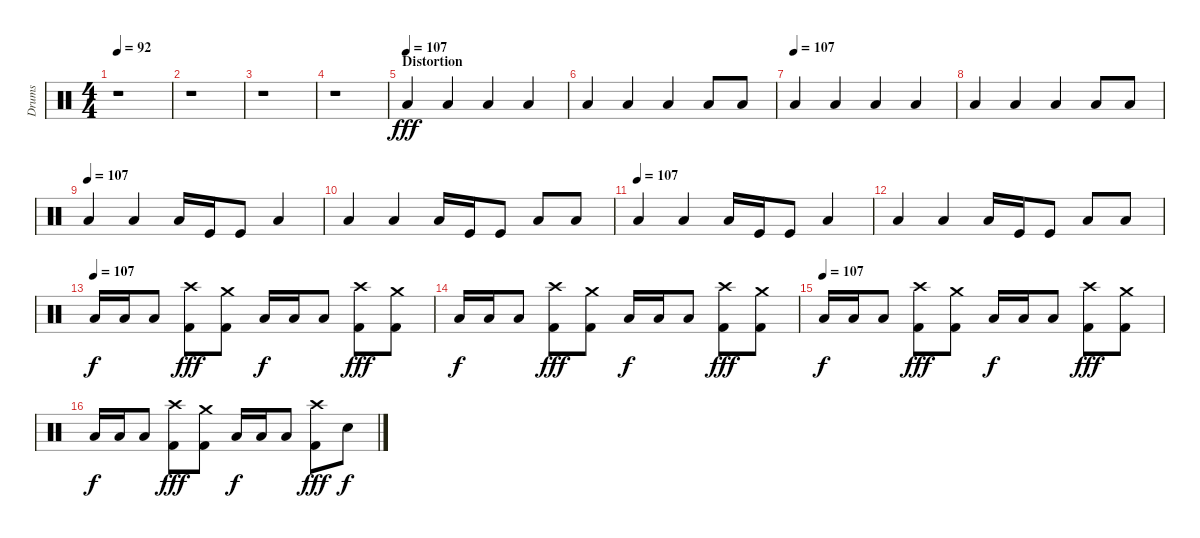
\track ("Drums" "Drums") {instrument percussion}
\staff {score}
\articulation defaults
\ts (4 4)
\tempo 92
\clef neutral
\ks c
r.1{dy fff} |
r.1 |
r.1 |
r.1 |
\section ("" "Distortion")
\tempo (107)
"Low Floor Tom (hit)".4 "Low Floor Tom (hit)".4 "Low Floor Tom (hit)".4 "Low Floor Tom (hit)".4 |
"Low Floor Tom (hit)".4 "Low Floor Tom (hit)".4 "Low Floor Tom (hit)".4 "Low Floor Tom (hit)".8 "Low Floor Tom (hit)".8 |
\tempo (107)
"Low Floor Tom (hit)".4 "Low Floor Tom (hit)".4 "Low Floor Tom (hit)".4 "Low Floor Tom (hit)".4 |
"Low Floor Tom (hit)".4 "Low Floor Tom (hit)".4 "Low Floor Tom (hit)".4 "Low Floor Tom (hit)".8 "Low Floor Tom (hit)".8 |
\tempo (107)
"Low Floor Tom (hit)".4 "Low Floor Tom (hit)".4 "Low Floor Tom (hit)".16 "Kick (hit)".16 "Kick (hit)".8 "Low Floor Tom (hit)".4 |
"Low Floor Tom (hit)".4 "Low Floor Tom (hit)".4 "Low Floor Tom (hit)".16 "Kick (hit)".16 "Kick (hit)".8 "Low Floor Tom (hit)".8 "Low Floor Tom (hit)".8 |
\tempo (107)
"Low Floor Tom (hit)".4 "Low Floor Tom (hit)".4 "Low Floor Tom (hit)".16 "Kick (hit)".16 "Kick (hit)".8 "Low Floor Tom (hit)".4 |
"Low Floor Tom (hit)".4 "Low Floor Tom (hit)".4 "Low Floor Tom (hit)".16 "Kick (hit)".16 "Kick (hit)".8 "Low Floor Tom (hit)".8 "Low Floor Tom (hit)".8 |
\tempo (107)
"Low Floor Tom (hit)".16{dy f} "Low Floor Tom (hit)".16 "Low Floor Tom (hit)".8 ("Crash high (hit)" "Kick (hit) 2").8{dy fff} ("Crash medium (hit)" "Kick (hit) 2").8 "Low Floor Tom (hit)".16{dy f} "Low Floor Tom (hit)".16 "Low Floor Tom (hit)".8 ("Crash high (hit)" "Kick (hit) 2").8{dy fff} ("Crash medium (hit)" "Kick (hit) 2").8 |
"Low Floor Tom (hit)".16{dy f} "Low Floor Tom (hit)".16 "Low Floor Tom (hit)".8 ("Crash high (hit)" "Kick (hit) 2").8{dy fff} ("Crash medium (hit)" "Kick (hit) 2").8 "Low Floor Tom (hit)".16{dy f} "Low Floor Tom (hit)".16 "Low Floor Tom (hit)".8 ("Crash high (hit)" "Kick (hit) 2").8{dy fff} ("Crash medium (hit)" "Kick (hit) 2").8 |
\tempo (107)
"Low Floor Tom (hit)".16{dy f} "Low Floor Tom (hit)".16 "Low Floor Tom (hit)".8 ("Crash high (hit)" "Kick (hit) 2").8{dy fff} ("Crash medium (hit)" "Kick (hit) 2").8 "Low Floor Tom (hit)".16{dy f} "Low Floor Tom (hit)".16 "Low Floor Tom (hit)".8 ("Crash high (hit)" "Kick (hit) 2").8{dy fff} ("Crash medium (hit)" "Kick (hit) 2").8 |
"Low Floor Tom (hit)".16{dy f} "Low Floor Tom (hit)".16 "Low Floor Tom (hit)".8 ("Crash high (hit)" "Kick (hit) 2").8{dy fff} ("Crash medium (hit)" "Kick (hit) 2").8 "Low Floor Tom (hit)".16{dy f} "Low Floor Tom (hit)".16 "Low Floor Tom (hit)".8 ("Crash high (hit)" "Kick (hit) 2").8{dy fff} "Electric Snare (hit)".8{dy f}
